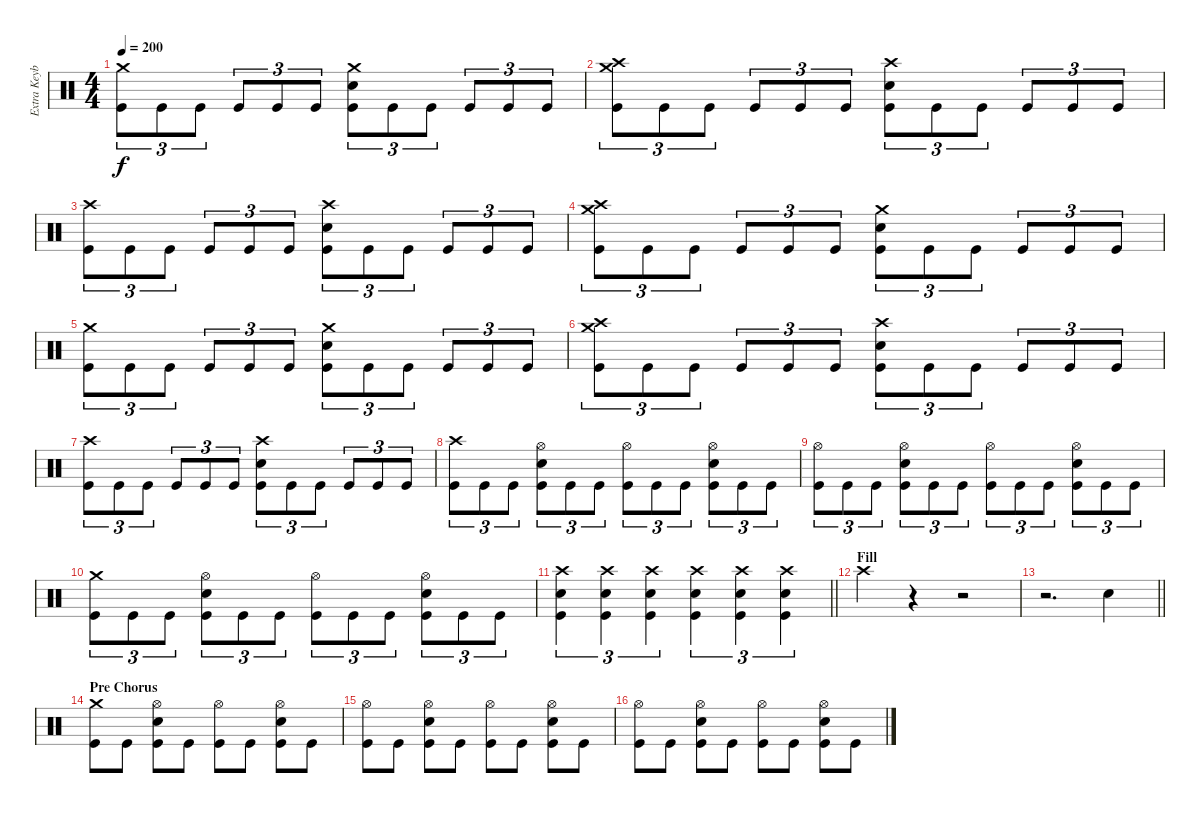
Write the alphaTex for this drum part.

\track ("Extra Keyboard" "Extra Keyb") {instrument percussion}
\staff {score}
\articulation defaults
\ts (4 4)
\tempo 200
\clef neutral
\ks c
("Crash medium (hit)" "Kick (hit)").8{tu (3 2) dy f} "Kick (hit)".8{tu (3 2)} "Kick (hit)".8{tu (3 2)} "Kick (hit)".8{tu (3 2)} "Kick (hit)".8{tu (3 2)} "Kick (hit)".8{tu (3 2)} ("Crash medium (hit)" "Electric Snare (hit)" "Kick (hit)").8{tu (3 2)} "Kick (hit)".8{tu (3 2)} "Kick (hit)".8{tu (3 2)} "Kick (hit)".8{tu (3 2)} "Kick (hit)".8{tu (3 2)} "Kick (hit)".8{tu (3 2)} |
("Crash high (hit)" "Crash medium (hit)" "Kick (hit)").8{tu (3 2)} "Kick (hit)".8{tu (3 2)} "Kick (hit)".8{tu (3 2)} "Kick (hit)".8{tu (3 2)} "Kick (hit)".8{tu (3 2)} "Kick (hit)".8{tu (3 2)} ("Crash high (hit)" "Electric Snare (hit)" "Kick (hit)").8{tu (3 2)} "Kick (hit)".8{tu (3 2)} "Kick (hit)".8{tu (3 2)} "Kick (hit)".8{tu (3 2)} "Kick (hit)".8{tu (3 2)} "Kick (hit)".8{tu (3 2)} |
("Crash high (hit)" "Kick (hit)").8{tu (3 2)} "Kick (hit)".8{tu (3 2)} "Kick (hit)".8{tu (3 2)} "Kick (hit)".8{tu (3 2)} "Kick (hit)".8{tu (3 2)} "Kick (hit)".8{tu (3 2)} ("Crash high (hit)" "Electric Snare (hit)" "Kick (hit)").8{tu (3 2)} "Kick (hit)".8{tu (3 2)} "Kick (hit)".8{tu (3 2)} "Kick (hit)".8{tu (3 2)} "Kick (hit)".8{tu (3 2)} "Kick (hit)".8{tu (3 2)} |
("Crash high (hit)" "Crash medium (hit)" "Kick (hit)").8{tu (3 2)} "Kick (hit)".8{tu (3 2)} "Kick (hit)".8{tu (3 2)} "Kick (hit)".8{tu (3 2)} "Kick (hit)".8{tu (3 2)} "Kick (hit)".8{tu (3 2)} ("Crash medium (hit)" "Electric Snare (hit)" "Kick (hit)").8{tu (3 2)} "Kick (hit)".8{tu (3 2)} "Kick (hit)".8{tu (3 2)} "Kick (hit)".8{tu (3 2)} "Kick (hit)".8{tu (3 2)} "Kick (hit)".8{tu (3 2)} |
("Crash medium (hit)" "Kick (hit)").8{tu (3 2)} "Kick (hit)".8{tu (3 2)} "Kick (hit)".8{tu (3 2)} "Kick (hit)".8{tu (3 2)} "Kick (hit)".8{tu (3 2)} "Kick (hit)".8{tu (3 2)} ("Crash medium (hit)" "Electric Snare (hit)" "Kick (hit)").8{tu (3 2)} "Kick (hit)".8{tu (3 2)} "Kick (hit)".8{tu (3 2)} "Kick (hit)".8{tu (3 2)} "Kick (hit)".8{tu (3 2)} "Kick (hit)".8{tu (3 2)} |
("Crash high (hit)" "Crash medium (hit)" "Kick (hit)").8{tu (3 2)} "Kick (hit)".8{tu (3 2)} "Kick (hit)".8{tu (3 2)} "Kick (hit)".8{tu (3 2)} "Kick (hit)".8{tu (3 2)} "Kick (hit)".8{tu (3 2)} ("Crash high (hit)" "Electric Snare (hit)" "Kick (hit)").8{tu (3 2)} "Kick (hit)".8{tu (3 2)} "Kick (hit)".8{tu (3 2)} "Kick (hit)".8{tu (3 2)} "Kick (hit)".8{tu (3 2)} "Kick (hit)".8{tu (3 2)} |
("Crash high (hit)" "Kick (hit)").8{tu (3 2)} "Kick (hit)".8{tu (3 2)} "Kick (hit)".8{tu (3 2)} "Kick (hit)".8{tu (3 2)} "Kick (hit)".8{tu (3 2)} "Kick (hit)".8{tu (3 2)} ("Crash high (hit)" "Electric Snare (hit)" "Kick (hit)").8{tu (3 2)} "Kick (hit)".8{tu (3 2)} "Kick (hit)".8{tu (3 2)} "Kick (hit)".8{tu (3 2)} "Kick (hit)".8{tu (3 2)} "Kick (hit)".8{tu (3 2)} |
("Crash high (hit)" "Kick (hit)").8{tu (3 2)} "Kick (hit)".8{tu (3 2)} "Kick (hit)".8{tu (3 2)} ("Hi-Hat (open)" "Electric Snare (hit)" "Kick (hit)").8{tu (3 2)} "Kick (hit)".8{tu (3 2)} "Kick (hit)".8{tu (3 2)} ("Hi-Hat (open)" "Kick (hit)").8{tu (3 2)} "Kick (hit)".8{tu (3 2)} "Kick (hit)".8{tu (3 2)} ("Hi-Hat (open)" "Electric Snare (hit)" "Kick (hit)").8{tu (3 2)} "Kick (hit)".8{tu (3 2)} "Kick (hit)".8{tu (3 2)} |
("Hi-Hat (open)" "Kick (hit)").8{tu (3 2)} "Kick (hit)".8{tu (3 2)} "Kick (hit)".8{tu (3 2)} ("Hi-Hat (open)" "Electric Snare (hit)" "Kick (hit)").8{tu (3 2)} "Kick (hit)".8{tu (3 2)} "Kick (hit)".8{tu (3 2)} ("Hi-Hat (open)" "Kick (hit)").8{tu (3 2)} "Kick (hit)".8{tu (3 2)} "Kick (hit)".8{tu (3 2)} ("Hi-Hat (open)" "Electric Snare (hit)" "Kick (hit)").8{tu (3 2)} "Kick (hit)".8{tu (3 2)} "Kick (hit)".8{tu (3 2)} |
("Crash medium (hit)" "Kick (hit)").8{tu (3 2)} "Kick (hit)".8{tu (3 2)} "Kick (hit)".8{tu (3 2)} ("Hi-Hat (open)" "Electric Snare (hit)" "Kick (hit)").8{tu (3 2)} "Kick (hit)".8{tu (3 2)} "Kick (hit)".8{tu (3 2)} ("Hi-Hat (open)" "Kick (hit)").8{tu (3 2)} "Kick (hit)".8{tu (3 2)} "Kick (hit)".8{tu (3 2)} ("Hi-Hat (open)" "Electric Snare (hit)" "Kick (hit)").8{tu (3 2)} "Kick (hit)".8{tu (3 2)} "Kick (hit)".8{tu (3 2)} |
\barLineRight lightlight
("Crash high (hit)" "Electric Snare (hit)" "Kick (hit)").4{tu (3 2)} ("Crash high (hit)" "Electric Snare (hit)" "Kick (hit)").4{tu (3 2)} ("Crash high (hit)" "Electric Snare (hit)" "Kick (hit)").4{tu (3 2)} ("Crash high (hit)" "Electric Snare (hit)" "Kick (hit)").4{tu (3 2)} ("Crash high (hit)" "Electric Snare (hit)" "Kick (hit)").4{tu (3 2)} ("Crash high (hit)" "Electric Snare (hit)" "Kick (hit)").4{tu (3 2)} |
\section ("" "Fill")
"Crash high (hit)".4 r.4 r.2 |
\barLineRight lightlight
r.2{d} "Electric Snare (hit)".4 |
\section ("" "Pre Chorus")
("Crash medium (hit)" "Kick (hit)").8 "Kick (hit)".8 ("Hi-Hat (open)" "Electric Snare (hit)" "Kick (hit)").8 "Kick (hit)".8 ("Hi-Hat (open)" "Kick (hit)").8 "Kick (hit)".8 ("Hi-Hat (open)" "Electric Snare (hit)" "Kick (hit)").8 "Kick (hit)".8 |
("Hi-Hat (open)" "Kick (hit)").8 "Kick (hit)".8 ("Hi-Hat (open)" "Electric Snare (hit)" "Kick (hit)").8 "Kick (hit)".8 ("Hi-Hat (open)" "Kick (hit)").8 "Kick (hit)".8 ("Hi-Hat (open)" "Electric Snare (hit)" "Kick (hit)").8 "Kick (hit)".8 |
("Hi-Hat (open)" "Kick (hit)").8 "Kick (hit)".8 ("Hi-Hat (open)" "Electric Snare (hit)" "Kick (hit)").8 "Kick (hit)".8 ("Hi-Hat (open)" "Kick (hit)").8 "Kick (hit)".8 ("Hi-Hat (open)" "Electric Snare (hit)" "Kick (hit)").8 "Kick (hit)".8
